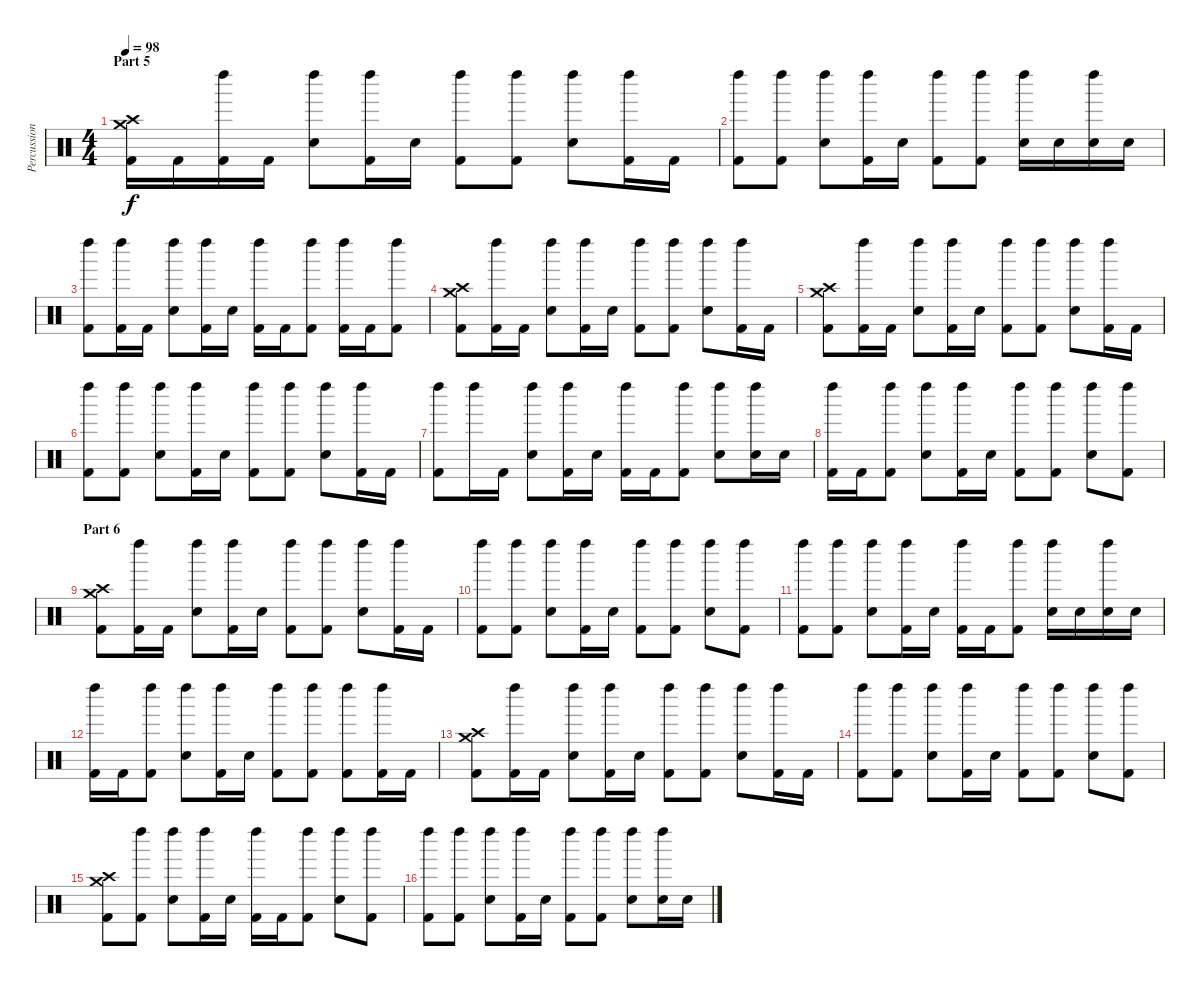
\track ("Percussion" "Percussion") {instrument percussion}
\staff {score}
\articulation defaults
\ts (4 4)
\section ("" "Part 5")
\tempo 98
\clef neutral
\ks c
("Crash medium (hit)" "Crash high (hit)" "Kick (hit) 2").16{dy f} "Kick (hit) 2".16 ("Left Maraca (hit)" "Kick (hit) 2").16 "Kick (hit) 2".16 ("Left Maraca (hit)" "Snare (hit) 2").8 ("Left Maraca (hit)" "Kick (hit) 2").16 "Snare (hit) 2".16 ("Left Maraca (hit)" "Kick (hit) 2").8 ("Left Maraca (hit)" "Kick (hit) 2").8 ("Left Maraca (hit)" "Snare (hit) 2").8 ("Left Maraca (hit)" "Kick (hit) 2").16 "Kick (hit) 2".16 |
("Left Maraca (hit)" "Kick (hit) 2").8 ("Left Maraca (hit)" "Kick (hit) 2").8 ("Left Maraca (hit)" "Snare (hit) 2").8 ("Left Maraca (hit)" "Kick (hit) 2").16 "Snare (hit) 2".16 ("Left Maraca (hit)" "Kick (hit) 2").8 ("Left Maraca (hit)" "Kick (hit) 2").8 ("Left Maraca (hit)" "Snare (hit) 2").16 "Snare (hit) 2".16 ("Left Maraca (hit)" "Snare (hit) 2").16 "Snare (hit) 2".16 |
("Left Maraca (hit)" "Kick (hit) 2").8 ("Left Maraca (hit)" "Kick (hit) 2").16 "Kick (hit) 2".16 ("Left Maraca (hit)" "Snare (hit) 2").8 ("Left Maraca (hit)" "Kick (hit) 2").16 "Snare (hit) 2".16 ("Left Maraca (hit)" "Kick (hit) 2").16 "Kick (hit) 2".16 ("Left Maraca (hit)" "Kick (hit) 2").8 ("Left Maraca (hit)" "Kick (hit) 2").16 "Kick (hit) 2".16 ("Left Maraca (hit)" "Kick (hit) 2").8 |
("Crash medium (hit)" "Crash high (hit)" "Kick (hit) 2").8 ("Left Maraca (hit)" "Kick (hit) 2").16 "Kick (hit) 2".16 ("Left Maraca (hit)" "Snare (hit) 2").8 ("Left Maraca (hit)" "Kick (hit) 2").16 "Snare (hit) 2".16 ("Left Maraca (hit)" "Kick (hit) 2").8 ("Left Maraca (hit)" "Kick (hit) 2").8 ("Left Maraca (hit)" "Snare (hit) 2").8 ("Left Maraca (hit)" "Kick (hit) 2").16 "Kick (hit) 2".16 |
("Crash medium (hit)" "Crash high (hit)" "Kick (hit) 2").8 ("Left Maraca (hit)" "Kick (hit) 2").16 "Kick (hit) 2".16 ("Left Maraca (hit)" "Snare (hit) 2").8 ("Left Maraca (hit)" "Kick (hit) 2").16 "Snare (hit) 2".16 ("Left Maraca (hit)" "Kick (hit) 2").8 ("Left Maraca (hit)" "Kick (hit) 2").8 ("Left Maraca (hit)" "Snare (hit) 2").8 ("Left Maraca (hit)" "Kick (hit) 2").16 "Kick (hit) 2".16 |
("Left Maraca (hit)" "Kick (hit) 2").8 ("Left Maraca (hit)" "Kick (hit) 2").8 ("Left Maraca (hit)" "Snare (hit) 2").8 ("Left Maraca (hit)" "Kick (hit) 2").16 "Snare (hit) 2".16 ("Left Maraca (hit)" "Kick (hit) 2").8 ("Left Maraca (hit)" "Kick (hit) 2").8 ("Left Maraca (hit)" "Snare (hit) 2").8 ("Left Maraca (hit)" "Kick (hit) 2").16 "Kick (hit) 2".16 |
("Left Maraca (hit)" "Kick (hit) 2").8 "Left Maraca (hit)".16 "Kick (hit) 2".16 ("Left Maraca (hit)" "Snare (hit) 2").8 ("Left Maraca (hit)" "Kick (hit) 2").16 "Snare (hit) 2".16 ("Left Maraca (hit)" "Kick (hit) 2").16 "Kick (hit) 2".16 ("Left Maraca (hit)" "Kick (hit) 2").8 ("Left Maraca (hit)" "Snare (hit) 2").8 ("Left Maraca (hit)" "Snare (hit) 2").16 "Snare (hit) 2".16 |
("Left Maraca (hit)" "Kick (hit) 2").16 "Kick (hit) 2".16 ("Left Maraca (hit)" "Kick (hit) 2").8 ("Left Maraca (hit)" "Snare (hit) 2").8 ("Left Maraca (hit)" "Kick (hit) 2").16 "Snare (hit) 2".16 ("Left Maraca (hit)" "Kick (hit) 2").8 ("Left Maraca (hit)" "Kick (hit) 2").8 ("Left Maraca (hit)" "Snare (hit) 2").8 ("Left Maraca (hit)" "Kick (hit) 2").8 |
\section ("" "Part 6")
("Crash medium (hit)" "Crash high (hit)" "Kick (hit) 2").8 ("Left Maraca (hit)" "Kick (hit) 2").16 "Kick (hit) 2".16 ("Left Maraca (hit)" "Snare (hit) 2").8 ("Left Maraca (hit)" "Kick (hit) 2").16 "Snare (hit) 2".16 ("Left Maraca (hit)" "Kick (hit) 2").8 ("Left Maraca (hit)" "Kick (hit) 2").8 ("Left Maraca (hit)" "Snare (hit) 2").8 ("Left Maraca (hit)" "Kick (hit) 2").16 "Kick (hit) 2".16 |
("Left Maraca (hit)" "Kick (hit) 2").8 ("Left Maraca (hit)" "Kick (hit) 2").8 ("Left Maraca (hit)" "Snare (hit) 2").8 ("Left Maraca (hit)" "Kick (hit) 2").16 "Snare (hit) 2".16 ("Left Maraca (hit)" "Kick (hit) 2").8 ("Left Maraca (hit)" "Kick (hit) 2").8 ("Left Maraca (hit)" "Snare (hit) 2").8 ("Left Maraca (hit)" "Kick (hit) 2").8 |
("Left Maraca (hit)" "Kick (hit) 2").8 ("Left Maraca (hit)" "Kick (hit) 2").8 ("Left Maraca (hit)" "Snare (hit) 2").8 ("Left Maraca (hit)" "Kick (hit) 2").16 "Snare (hit) 2".16 ("Left Maraca (hit)" "Kick (hit) 2").16 "Kick (hit) 2".16 ("Left Maraca (hit)" "Kick (hit) 2").8 ("Left Maraca (hit)" "Snare (hit) 2").16 "Snare (hit) 2".16 ("Left Maraca (hit)" "Snare (hit) 2").16 "Snare (hit) 2".16 |
("Left Maraca (hit)" "Kick (hit) 2").16 "Kick (hit) 2".16 ("Left Maraca (hit)" "Kick (hit) 2").8 ("Left Maraca (hit)" "Snare (hit) 2").8 ("Left Maraca (hit)" "Kick (hit) 2").16 "Snare (hit) 2".16 ("Left Maraca (hit)" "Kick (hit) 2").8 ("Left Maraca (hit)" "Kick (hit) 2").8 ("Left Maraca (hit)" "Kick (hit) 2").8 ("Left Maraca (hit)" "Kick (hit) 2").16 "Kick (hit) 2".16 |
("Crash medium (hit)" "Crash high (hit)" "Kick (hit) 2").8 ("Left Maraca (hit)" "Kick (hit) 2").16 "Kick (hit) 2".16 ("Left Maraca (hit)" "Snare (hit) 2").8 ("Left Maraca (hit)" "Kick (hit) 2").16 "Snare (hit) 2".16 ("Left Maraca (hit)" "Kick (hit) 2").8 ("Left Maraca (hit)" "Kick (hit) 2").8 ("Left Maraca (hit)" "Snare (hit) 2").8 ("Left Maraca (hit)" "Kick (hit) 2").16 "Kick (hit) 2".16 |
("Left Maraca (hit)" "Kick (hit) 2").8 ("Left Maraca (hit)" "Kick (hit) 2").8 ("Left Maraca (hit)" "Snare (hit) 2").8 ("Left Maraca (hit)" "Kick (hit) 2").16 "Snare (hit) 2".16 ("Left Maraca (hit)" "Kick (hit) 2").8 ("Left Maraca (hit)" "Kick (hit) 2").8 ("Left Maraca (hit)" "Snare (hit) 2").8 ("Left Maraca (hit)" "Kick (hit) 2").8 |
("Crash medium (hit)" "Crash high (hit)" "Kick (hit) 2").8 ("Left Maraca (hit)" "Kick (hit) 2").8 ("Left Maraca (hit)" "Snare (hit) 2").8 ("Left Maraca (hit)" "Kick (hit) 2").16 "Snare (hit) 2".16 ("Left Maraca (hit)" "Kick (hit) 2").16 "Kick (hit) 2".16 ("Left Maraca (hit)" "Kick (hit) 2").8 ("Left Maraca (hit)" "Snare (hit) 2").8 ("Left Maraca (hit)" "Kick (hit) 2").8 |
("Left Maraca (hit)" "Kick (hit) 2").8 ("Left Maraca (hit)" "Kick (hit) 2").8 ("Left Maraca (hit)" "Snare (hit) 2").8 ("Left Maraca (hit)" "Kick (hit) 2").16 "Snare (hit) 2".16 ("Left Maraca (hit)" "Kick (hit) 2").8 ("Left Maraca (hit)" "Kick (hit) 2").8 ("Left Maraca (hit)" "Snare (hit) 2").8 ("Left Maraca (hit)" "Snare (hit) 2").16 "Snare (hit) 2".16
